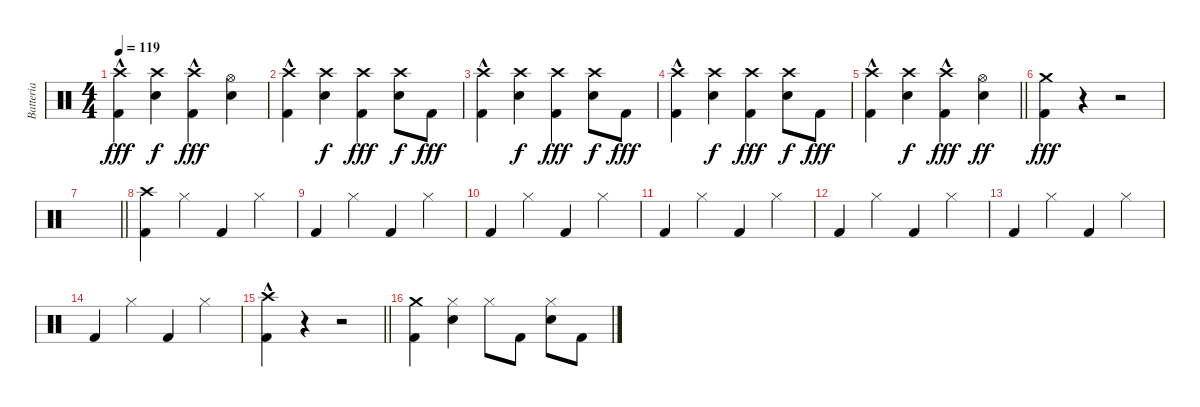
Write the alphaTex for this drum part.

\track ("Batteria" "Batteria") {instrument percussion}
\staff {score}
\articulation defaults
\ts (4 4)
\tempo 119
\clef neutral
\ks c
("Crash high (hit)"{hac} "Kick (hit) 2").4{dy fff} ("Crash high (hit)" "Electric Snare (hit)").4{dy f} ("Crash high (hit)"{hac} "Kick (hit) 2").4{dy fff} ("Hi-Hat (open)" "Electric Snare (hit)").4 |
("Crash high (hit)"{hac} "Kick (hit) 2").4 ("Crash high (hit)" "Electric Snare (hit)").4{dy f} ("Crash high (hit)" "Kick (hit) 2").4{dy fff} ("Crash high (hit)" "Electric Snare (hit)").8{dy f} "Kick (hit) 2".8{dy fff} |
("Crash high (hit)"{hac} "Kick (hit) 2").4 ("Crash high (hit)" "Electric Snare (hit)").4{dy f} ("Crash high (hit)" "Kick (hit) 2").4{dy fff} ("Crash high (hit)" "Electric Snare (hit)").8{dy f} "Kick (hit) 2".8{dy fff} |
("Crash high (hit)"{hac} "Kick (hit) 2").4 ("Crash high (hit)" "Electric Snare (hit)").4{dy f} ("Crash high (hit)" "Kick (hit) 2").4{dy fff} ("Crash high (hit)" "Electric Snare (hit)").8{dy f} "Kick (hit) 2".8{dy fff} |
\barLineRight lightlight
("Crash high (hit)"{hac} "Kick (hit) 2").4 ("Crash high (hit)" "Electric Snare (hit)").4{dy f} ("Crash high (hit)"{hac} "Kick (hit) 2").4{dy fff} ("Hi-Hat (open)" "Electric Snare (hit)").4{dy ff} |
("Crash medium (hit)" "Kick (hit) 2").4{dy fff} r.4 r.2 |
\barLineRight lightlight
|
("Crash high (hit)" "Kick (hit) 2").4 "Hi-Hat (closed)".4 "Kick (hit) 2".4 "Hi-Hat (closed)".4 |
"Kick (hit) 2".4 "Hi-Hat (closed)".4 "Kick (hit) 2".4 "Hi-Hat (closed)".4 |
"Kick (hit) 2".4 "Hi-Hat (closed)".4 "Kick (hit) 2".4 "Hi-Hat (closed)".4 |
"Kick (hit) 2".4 "Hi-Hat (closed)".4 "Kick (hit) 2".4 "Hi-Hat (closed)".4 |
"Kick (hit) 2".4 "Hi-Hat (closed)".4 "Kick (hit) 2".4 "Hi-Hat (closed)".4 |
"Kick (hit) 2".4 "Hi-Hat (closed)".4 "Kick (hit) 2".4 "Hi-Hat (closed)".4 |
"Kick (hit) 2".4 "Hi-Hat (closed)".4 "Kick (hit) 2".4 "Hi-Hat (closed)".4 |
\barLineRight lightlight
("Crash high (hit)" "Kick (hit) 2"{hac}).4 r.4 r.2 |
("Crash medium (hit)" "Kick (hit) 2").4 ("Hi-Hat (closed)" "Electric Snare (hit)").4 "Hi-Hat (closed)".8 "Kick (hit) 2".8 ("Hi-Hat (closed)" "Electric Snare (hit)").8 "Kick (hit) 2".8
